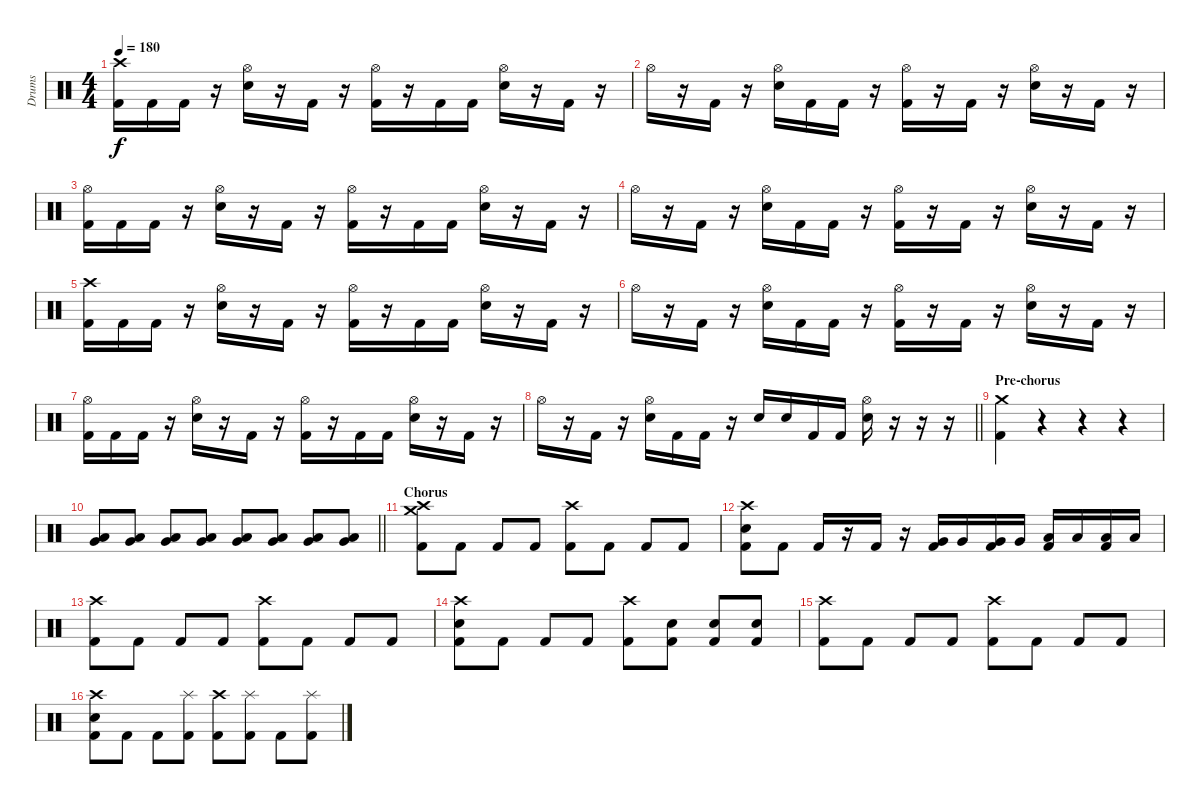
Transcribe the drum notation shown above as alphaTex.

\track ("Drums" "Drums") {instrument percussion}
\staff {score}
\articulation defaults
\ts (4 4)
\tempo 180
\clef neutral
\ks c
("Crash high (hit)" "Kick (hit) 2").16{dy f} "Kick (hit) 2".16 "Kick (hit) 2".16 r.16 ("Hi-Hat (open)" "Electric Snare (hit)").16 r.16 "Kick (hit) 2".16 r.16 ("Hi-Hat (open)" "Kick (hit) 2").16 r.16 "Kick (hit) 2".16 "Kick (hit) 2".16 ("Hi-Hat (open)" "Electric Snare (hit)").16 r.16 "Kick (hit) 2".16 r.16 |
"Hi-Hat (open)".16 r.16 "Kick (hit) 2".16 r.16 ("Hi-Hat (open)" "Electric Snare (hit)").16 "Kick (hit) 2".16 "Kick (hit) 2".16 r.16 ("Hi-Hat (open)" "Kick (hit) 2").16 r.16 "Kick (hit) 2".16 r.16 ("Hi-Hat (open)" "Electric Snare (hit)").16 r.16 "Kick (hit) 2".16 r.16 |
("Hi-Hat (open)" "Kick (hit) 2").16 "Kick (hit) 2".16 "Kick (hit) 2".16 r.16 ("Hi-Hat (open)" "Electric Snare (hit)").16 r.16 "Kick (hit) 2".16 r.16 ("Hi-Hat (open)" "Kick (hit) 2").16 r.16 "Kick (hit) 2".16 "Kick (hit) 2".16 ("Hi-Hat (open)" "Electric Snare (hit)").16 r.16 "Kick (hit) 2".16 r.16 |
"Hi-Hat (open)".16 r.16 "Kick (hit) 2".16 r.16 ("Hi-Hat (open)" "Electric Snare (hit)").16 "Kick (hit) 2".16 "Kick (hit) 2".16 r.16 ("Hi-Hat (open)" "Kick (hit) 2").16 r.16 "Kick (hit) 2".16 r.16 ("Hi-Hat (open)" "Electric Snare (hit)").16 r.16 "Kick (hit) 2".16 r.16 |
("Crash high (hit)" "Kick (hit) 2").16 "Kick (hit) 2".16 "Kick (hit) 2".16 r.16 ("Hi-Hat (open)" "Electric Snare (hit)").16 r.16 "Kick (hit) 2".16 r.16 ("Hi-Hat (open)" "Kick (hit) 2").16 r.16 "Kick (hit) 2".16 "Kick (hit) 2".16 ("Hi-Hat (open)" "Electric Snare (hit)").16 r.16 "Kick (hit) 2".16 r.16 |
"Hi-Hat (open)".16 r.16 "Kick (hit) 2".16 r.16 ("Hi-Hat (open)" "Electric Snare (hit)").16 "Kick (hit) 2".16 "Kick (hit) 2".16 r.16 ("Hi-Hat (open)" "Kick (hit) 2").16 r.16 "Kick (hit) 2".16 r.16 ("Hi-Hat (open)" "Electric Snare (hit)").16 r.16 "Kick (hit) 2".16 r.16 |
("Hi-Hat (open)" "Kick (hit) 2").16 "Kick (hit) 2".16 "Kick (hit) 2".16 r.16 ("Hi-Hat (open)" "Electric Snare (hit)").16 r.16 "Kick (hit) 2".16 r.16 ("Hi-Hat (open)" "Kick (hit) 2").16 r.16 "Kick (hit) 2".16 "Kick (hit) 2".16 ("Hi-Hat (open)" "Electric Snare (hit)").16 r.16 "Kick (hit) 2".16 r.16 |
\barLineRight lightlight "Hi-Hat (open)".16
r.16 "Kick (hit) 2".16 r.16 ("Hi-Hat (open)" "Electric Snare (hit)").16 "Kick (hit) 2".16 "Kick (hit) 2".16 r.16 "Electric Snare (hit)".16 "Electric Snare (hit)".16 "Kick (hit) 2".16 "Kick (hit) 2".16 ("Hi-Hat (open)" "Electric Snare (hit)").16 r.16 r.16 r.16 |
\section ("" "Pre-chorus")
("Crash medium (hit)" "Kick (hit) 2").4 r.4 r.4 r.4{volume 0} |
\barLineRight lightlight
("Low Floor Tom (hit)" "Very Low Tom (hit)").8{volume 11} ("Low Floor Tom (hit)" "Very Low Tom (hit)").8 ("Low Floor Tom (hit)" "Very Low Tom (hit)").8 ("Low Floor Tom (hit)" "Very Low Tom (hit)").8 ("Low Floor Tom (hit)" "Very Low Tom (hit)").8 ("Low Floor Tom (hit)" "Very Low Tom (hit)").8 ("Low Floor Tom (hit)" "Very Low Tom (hit)").8 ("Low Floor Tom (hit)" "Very Low Tom (hit)").8 |
\section ("" "Chorus ")
("Crash high (hit)" "Crash medium (hit)" "Kick (hit) 2").8 "Kick (hit) 2".8 "Kick (hit) 2".8 "Kick (hit) 2".8 ("Crash high (hit)" "Kick (hit) 2").8 "Kick (hit) 2".8 "Kick (hit) 2".8 "Kick (hit) 2".8 |
("Crash high (hit)" "Electric Snare (hit)" "Kick (hit) 2").8 "Kick (hit) 2".8 "Kick (hit) 2".16 r.16 "Kick (hit) 2".16 r.16 ("Very Low Tom (hit)" "Kick (hit) 2").16 "Very Low Tom (hit)".16 ("Very Low Tom (hit)" "Kick (hit) 2").16 "Very Low Tom (hit)".16 ("Low Floor Tom (hit)" "Kick (hit) 2").16 "Low Floor Tom (hit)".16 ("Low Floor Tom (hit)" "Kick (hit) 2").16 "Low Floor Tom (hit)".16 |
("Crash high (hit)" "Kick (hit) 2").8 "Kick (hit) 2".8 "Kick (hit) 2".8 "Kick (hit) 2".8 ("Crash high (hit)" "Kick (hit) 2").8 "Kick (hit) 2".8 "Kick (hit) 2".8 "Kick (hit) 2".8 |
("Crash high (hit)" "Electric Snare (hit)" "Kick (hit) 2").8 "Kick (hit) 2".8 "Kick (hit) 2".8 "Kick (hit) 2".8 ("Crash high (hit)" "Kick (hit) 2").8 ("Electric Snare (hit)" "Kick (hit) 2").8 ("Electric Snare (hit)" "Kick (hit) 2").8 ("Electric Snare (hit)" "Kick (hit) 2").8 |
("Crash high (hit)" "Kick (hit) 2").8 "Kick (hit) 2".8 "Kick (hit) 2".8 "Kick (hit) 2".8 ("Crash high (hit)" "Kick (hit) 2").8 "Kick (hit) 2".8 "Kick (hit) 2".8 "Kick (hit) 2".8 |
("Crash high (hit)" "Electric Snare (hit)" "Kick (hit) 2").8 "Kick (hit) 2".8 "Kick (hit) 2".8 ("Splash (hit)" "Kick (hit) 2").8 ("Crash high (hit)" "Kick (hit) 2").8 ("Splash (hit)" "Kick (hit) 2").8 "Kick (hit) 2".8 ("Splash (hit)" "Kick (hit) 2").8
